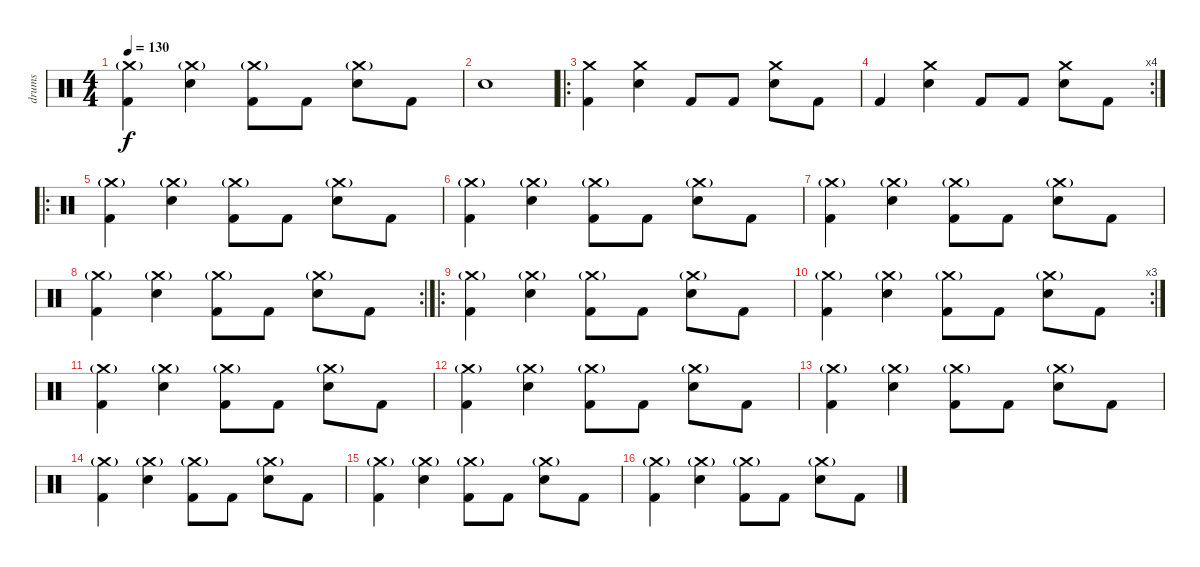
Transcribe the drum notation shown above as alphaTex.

\track ("drums" "drums") {instrument percussion}
\staff {score}
\articulation defaults
\ts (4 4)
\tempo 130
\clef neutral
\ks c
("Crash medium (hit)"{g} "Kick (hit) 2").4{dy f} ("Crash medium (hit)"{g} "Electric Snare (hit)").4 ("Crash medium (hit)"{g} "Kick (hit) 2").8 "Kick (hit) 2".8 ("Crash medium (hit)"{g} "Electric Snare (hit)").8 "Kick (hit) 2".8 |
"Electric Snare (hit)".1 |
\ro
("Crash medium (hit)" "Kick (hit) 2").4 ("Crash medium (hit)" "Electric Snare (hit)").4 "Kick (hit) 2".8 "Kick (hit) 2".8 ("Crash medium (hit)" "Electric Snare (hit)").8 "Kick (hit) 2".8 |
\rc 4 "Kick (hit) 2".4
("Crash medium (hit)" "Electric Snare (hit)").4 "Kick (hit) 2".8 "Kick (hit) 2".8 ("Crash medium (hit)" "Electric Snare (hit)").8 "Kick (hit) 2".8 |
\ro
("Crash medium (hit)"{g} "Kick (hit) 2").4 ("Crash medium (hit)"{g} "Electric Snare (hit)").4 ("Crash medium (hit)"{g} "Kick (hit) 2").8 "Kick (hit) 2".8 ("Crash medium (hit)"{g} "Electric Snare (hit)").8 "Kick (hit) 2".8 |
("Crash medium (hit)"{g} "Kick (hit) 2").4 ("Crash medium (hit)"{g} "Electric Snare (hit)").4 ("Crash medium (hit)"{g} "Kick (hit) 2").8 "Kick (hit) 2".8 ("Crash medium (hit)"{g} "Electric Snare (hit)").8 "Kick (hit) 2".8 |
("Crash medium (hit)"{g} "Kick (hit) 2").4 ("Crash medium (hit)"{g} "Electric Snare (hit)").4 ("Crash medium (hit)"{g} "Kick (hit) 2").8 "Kick (hit) 2".8 ("Crash medium (hit)"{g} "Electric Snare (hit)").8 "Kick (hit) 2".8 |
\rc 2
("Crash medium (hit)"{g} "Kick (hit) 2").4 ("Crash medium (hit)"{g} "Electric Snare (hit)").4 ("Crash medium (hit)"{g} "Kick (hit) 2").8 "Kick (hit) 2".8 ("Crash medium (hit)"{g} "Electric Snare (hit)").8 "Kick (hit) 2".8 |
\ro
("Crash medium (hit)"{g} "Kick (hit) 2").4 ("Crash medium (hit)"{g} "Electric Snare (hit)").4 ("Crash medium (hit)"{g} "Kick (hit) 2").8 "Kick (hit) 2".8 ("Crash medium (hit)"{g} "Electric Snare (hit)").8 "Kick (hit) 2".8 |
\rc 3
("Crash medium (hit)"{g} "Kick (hit) 2").4 ("Crash medium (hit)"{g} "Electric Snare (hit)").4 ("Crash medium (hit)"{g} "Kick (hit) 2").8 "Kick (hit) 2".8 ("Crash medium (hit)"{g} "Electric Snare (hit)").8 "Kick (hit) 2".8 |
("Crash medium (hit)"{g} "Kick (hit) 2").4 ("Crash medium (hit)"{g} "Electric Snare (hit)").4 ("Crash medium (hit)"{g} "Kick (hit) 2").8 "Kick (hit) 2".8 ("Crash medium (hit)"{g} "Electric Snare (hit)").8 "Kick (hit) 2".8 |
("Crash medium (hit)"{g} "Kick (hit) 2").4 ("Crash medium (hit)"{g} "Electric Snare (hit)").4 ("Crash medium (hit)"{g} "Kick (hit) 2").8 "Kick (hit) 2".8 ("Crash medium (hit)"{g} "Electric Snare (hit)").8 "Kick (hit) 2".8 |
("Crash medium (hit)"{g} "Kick (hit) 2").4 ("Crash medium (hit)"{g} "Electric Snare (hit)").4 ("Crash medium (hit)"{g} "Kick (hit) 2").8 "Kick (hit) 2".8 ("Crash medium (hit)"{g} "Electric Snare (hit)").8 "Kick (hit) 2".8 |
("Crash medium (hit)"{g} "Kick (hit) 2").4 ("Crash medium (hit)"{g} "Electric Snare (hit)").4 ("Crash medium (hit)"{g} "Kick (hit) 2").8 "Kick (hit) 2".8 ("Crash medium (hit)"{g} "Electric Snare (hit)").8 "Kick (hit) 2".8 |
("Crash medium (hit)"{g} "Kick (hit) 2").4 ("Crash medium (hit)"{g} "Electric Snare (hit)").4 ("Crash medium (hit)"{g} "Kick (hit) 2").8 "Kick (hit) 2".8 ("Crash medium (hit)"{g} "Electric Snare (hit)").8 "Kick (hit) 2".8 |
("Crash medium (hit)"{g} "Kick (hit) 2").4 ("Crash medium (hit)"{g} "Electric Snare (hit)").4 ("Crash medium (hit)"{g} "Kick (hit) 2").8 "Kick (hit) 2".8 ("Crash medium (hit)"{g} "Electric Snare (hit)").8 "Kick (hit) 2".8
